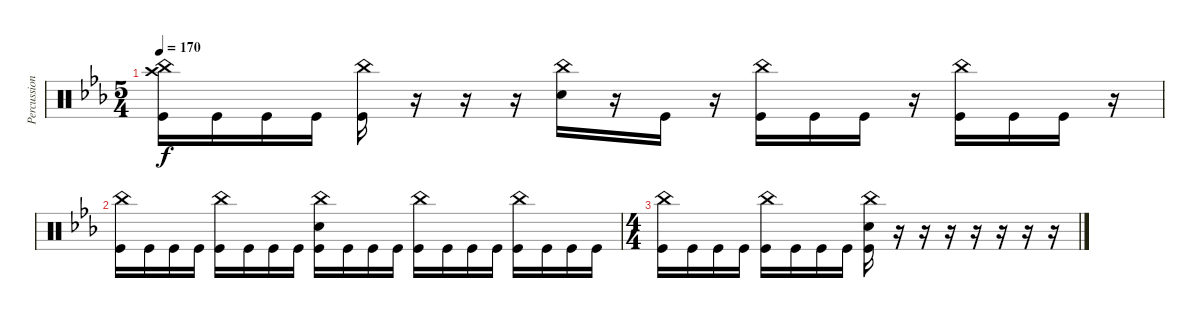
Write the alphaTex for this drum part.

\track ("Percussion" "Percussion") {instrument percussion}
\staff {score}
\articulation defaults
\ts (5 4)
\tempo 170
\clef neutral
\ks cminor
("China (hit)" "Crash high (hit)" "Kick (hit)").16{dy f} "Kick (hit)".16 "Kick (hit)".16 "Kick (hit)".16 ("China (hit)" "Kick (hit)").16 r.16 r.16 r.16 ("China (hit)" "Snare (hit) 2").16 r.16 "Kick (hit)".16 r.16 ("China (hit)" "Kick (hit)").16 "Kick (hit)".16 "Kick (hit)".16 r.16 ("China (hit)" "Kick (hit)").16 "Kick (hit)".16 "Kick (hit)".16 r.16 |
("China (hit)" "Kick (hit)").16 "Kick (hit)".16 "Kick (hit)".16 "Kick (hit)".16 ("China (hit)" "Kick (hit)").16 "Kick (hit)".16 "Kick (hit)".16 "Kick (hit)".16 ("China (hit)" "Snare (hit) 2" "Kick (hit)").16 "Kick (hit)".16 "Kick (hit)".16 "Kick (hit)".16 ("China (hit)" "Kick (hit)").16 "Kick (hit)".16 "Kick (hit)".16 "Kick (hit)".16 ("China (hit)" "Kick (hit)").16 "Kick (hit)".16 "Kick (hit)".16 "Kick (hit)".16 |
\ts (4 4)
("China (hit)" "Kick (hit)").16 "Kick (hit)".16 "Kick (hit)".16 "Kick (hit)".16 ("China (hit)" "Kick (hit)").16 "Kick (hit)".16 "Kick (hit)".16 "Kick (hit)".16 ("China (hit)" "Snare (hit) 2" "Kick (hit)").16 r.16 r.16 r.16 r.16 r.16 r.16 r.16
